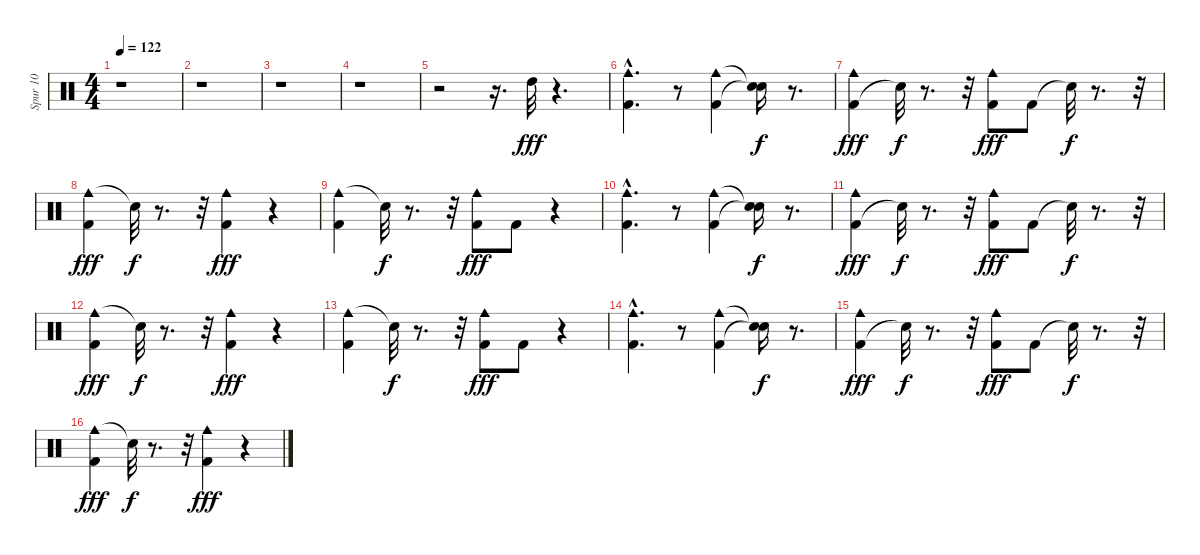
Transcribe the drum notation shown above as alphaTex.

\track ("Spur 10" "Spur 10") {instrument percussion}
\staff {score}
\articulation defaults
\ts (4 4)
\tempo 122
\clef neutral
\ks c
r.1{dy fff} |
r.1 |
r.1 |
r.1 |
r.2 r.16{d} "High Tom (hit)".32 r.4{d} |
("Cowbell medium (hit)" "Kick (hit) 2"{hac}).4{d} r.8 ("Kick (hit) 2" "Cowbell medium (hit)").4 ("Snare (hit)"{t} "Snare (hit)"{t}).16{dy f} r.8{d} |
("Kick (hit) 2" "Cowbell medium (hit)").4{dy fff} "Snare (hit)"{t}.32{dy f} r.8{d} r.32 ("Kick (hit) 2" "Cowbell medium (hit)").8{dy fff} "Kick (hit) 2".8 "Snare (hit)"{t}.32{dy f} r.8{d} r.32 |
("Cowbell medium (hit)" "Kick (hit) 2").4{dy fff} "Snare (hit)"{t}.32{dy f} r.8{d} r.32 ("Kick (hit) 2" "Cowbell medium (hit)").4{dy fff} r.4 |
("Cowbell medium (hit)" "Kick (hit) 2").4 "Snare (hit)"{t}.32{dy f} r.8{d} r.32 ("Cowbell medium (hit)" "Kick (hit) 2").8{dy fff} "Kick (hit) 2".8 r.4 |
("Cowbell medium (hit)" "Kick (hit) 2"{hac}).4{d} r.8 ("Kick (hit) 2" "Cowbell medium (hit)").4 ("Snare (hit)"{t} "Snare (hit)"{t}).16{dy f} r.8{d} |
("Kick (hit) 2" "Cowbell medium (hit)").4{dy fff} "Snare (hit)"{t}.32{dy f} r.8{d} r.32 ("Kick (hit) 2" "Cowbell medium (hit)").8{dy fff} "Kick (hit) 2".8 "Snare (hit)"{t}.32{dy f} r.8{d} r.32 |
("Cowbell medium (hit)" "Kick (hit) 2").4{dy fff} "Snare (hit)"{t}.32{dy f} r.8{d} r.32 ("Kick (hit) 2" "Cowbell medium (hit)").4{dy fff} r.4 |
("Cowbell medium (hit)" "Kick (hit) 2").4 "Snare (hit)"{t}.32{dy f} r.8{d} r.32 ("Cowbell medium (hit)" "Kick (hit) 2").8{dy fff} "Kick (hit) 2".8 r.4 |
("Cowbell medium (hit)" "Kick (hit) 2"{hac}).4{d} r.8 ("Kick (hit) 2" "Cowbell medium (hit)").4 ("Snare (hit)"{t} "Snare (hit)"{t}).16{dy f} r.8{d} |
("Kick (hit) 2" "Cowbell medium (hit)").4{dy fff} "Snare (hit)"{t}.32{dy f} r.8{d} r.32 ("Kick (hit) 2" "Cowbell medium (hit)").8{dy fff} "Kick (hit) 2".8 "Snare (hit)"{t}.32{dy f} r.8{d} r.32 |
("Cowbell medium (hit)" "Kick (hit) 2").4{dy fff} "Snare (hit)"{t}.32{dy f} r.8{d} r.32 ("Kick (hit) 2" "Cowbell medium (hit)").4{dy fff} r.4
